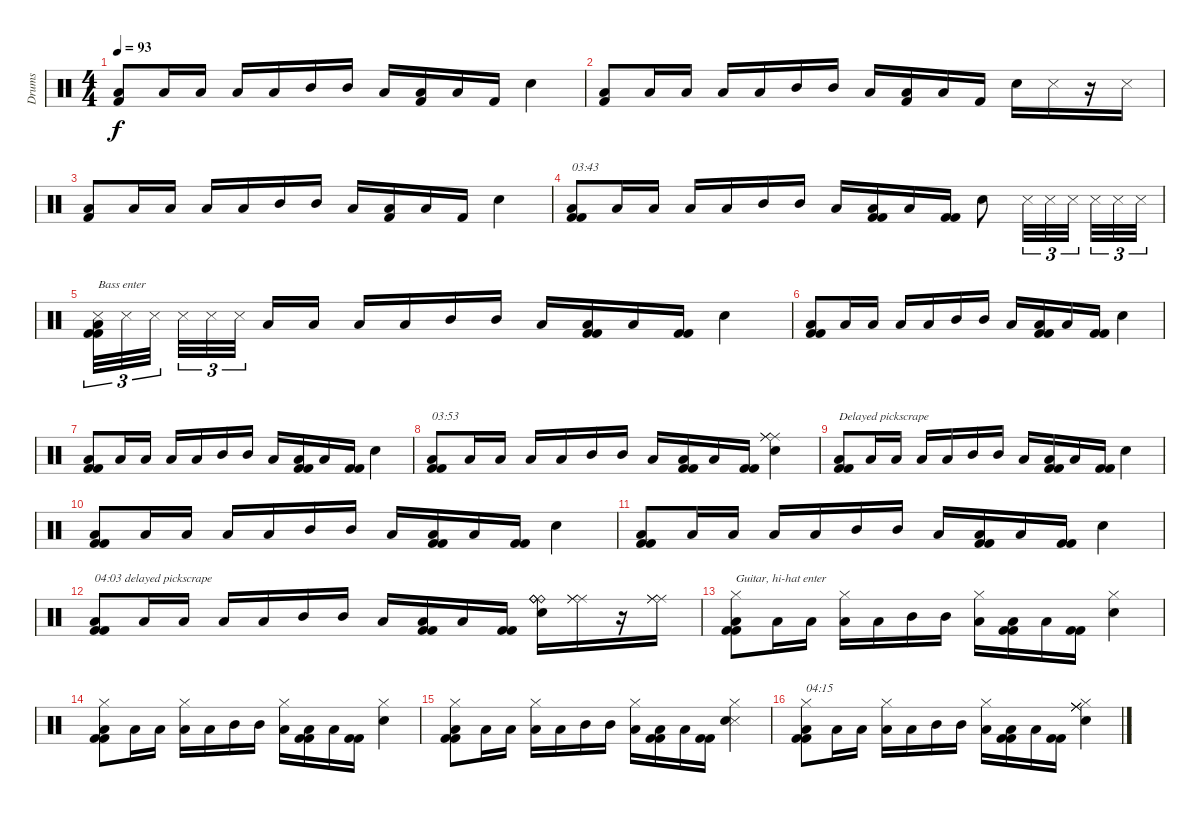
\track ("Drums" "Drums") {instrument percussion}
\staff {score}
\articulation defaults
\ts (4 4)
\tempo 93
\clef neutral
\ks c
("Low Floor Tom (hit)" "Kick (hit) 2").8{dy f} "Low Floor Tom (hit)".16 "Low Tom (hit)".16 "Low Tom (hit)".16 "Low Floor Tom (hit)".16 "Mid Tom (hit)".16 "Mid Tom (hit)".16 "Low Floor Tom (hit)".16 ("Low Tom (hit)" "Kick (hit) 2").16 "Low Floor Tom (hit)".16 "Kick (hit) 2".16 "Snare (hit) 2".4 |
("Low Floor Tom (hit)" "Kick (hit) 2").8 "Low Floor Tom (hit)".16 "Low Tom (hit)".16 "Low Tom (hit)".16 "Low Floor Tom (hit)".16 "Mid Tom (hit)".16 "Mid Tom (hit)".16 "Low Floor Tom (hit)".16 ("Low Tom (hit)" "Kick (hit) 2").16 "Low Floor Tom (hit)".16 "Kick (hit) 2".16 "Snare (hit) 2".16 "Snare (side stick) 3".16 r.16 "Snare (side stick) 3".16 |
("Low Floor Tom (hit)" "Kick (hit) 2").8 "Low Floor Tom (hit)".16 "Low Tom (hit)".16 "Low Tom (hit)".16 "Low Floor Tom (hit)".16 "Mid Tom (hit)".16 "Mid Tom (hit)".16 "Low Floor Tom (hit)".16 ("Low Tom (hit)" "Kick (hit) 2").16 "Low Floor Tom (hit)".16 "Kick (hit) 2".16 "Snare (hit) 2".4 |
("Low Floor Tom (hit)" "Kick (hit) 2" "Kick (hit) 2").8{txt "03:43"} "Low Floor Tom (hit)".16 "Low Tom (hit)".16 "Low Tom (hit)".16 "Low Floor Tom (hit)".16 "Mid Tom (hit)".16 "Mid Tom (hit)".16 "Low Floor Tom (hit)".16 ("Low Tom (hit)" "Kick (hit) 2" "Kick (hit) 2").16 "Low Floor Tom (hit)".16 ("Kick (hit) 2" "Kick (hit) 2").16 "Snare (hit) 2".8 "Snare (side stick) 3".32{tu (3 2)} "Snare (side stick) 3".32{tu (3 2)} "Snare (side stick) 3".32{tu (3 2)} "Snare (side stick) 3".32{tu (3 2)} "Snare (side stick) 3".32{tu (3 2)} "Snare (side stick) 3".32{tu (3 2)} |
("Snare (side stick) 3" "Low Floor Tom (hit)" "Kick (hit) 2" "Kick (hit) 2").32{tu (3 2) txt "Bass enter"} "Snare (side stick) 3".32{tu (3 2)} "Snare (side stick) 3".32{tu (3 2)} "Snare (side stick) 3".32{tu (3 2)} "Snare (side stick) 3".32{tu (3 2)} "Snare (side stick) 3".32{tu (3 2)} "Low Floor Tom (hit)".16 "Low Tom (hit)".16 "Low Tom (hit)".16 "Low Floor Tom (hit)".16 "Mid Tom (hit)".16 "Mid Tom (hit)".16 "Low Floor Tom (hit)".16 ("Low Tom (hit)" "Kick (hit) 2" "Kick (hit) 2").16 "Low Floor Tom (hit)".16 ("Kick (hit) 2" "Kick (hit) 2").16 "Snare (hit) 2".4 |
("Low Floor Tom (hit)" "Kick (hit) 2" "Kick (hit) 2").8 "Low Floor Tom (hit)".16 "Low Tom (hit)".16 "Low Tom (hit)".16 "Low Floor Tom (hit)".16 "Mid Tom (hit)".16 "Mid Tom (hit)".16 "Low Floor Tom (hit)".16 ("Low Tom (hit)" "Kick (hit) 2" "Kick (hit) 2").16 "Low Floor Tom (hit)".16 ("Kick (hit) 2" "Kick (hit) 2").16 "Snare (hit) 2".4 |
("Low Floor Tom (hit)" "Kick (hit) 2" "Kick (hit) 2").8 "Low Floor Tom (hit)".16 "Low Tom (hit)".16 "Low Tom (hit)".16 "Low Floor Tom (hit)".16 "Mid Tom (hit)".16 "Mid Tom (hit)".16 "Low Floor Tom (hit)".16 ("Low Tom (hit)" "Kick (hit) 2" "Kick (hit) 2").16 "Low Floor Tom (hit)".16 ("Kick (hit) 2" "Kick (hit) 2").16 "Snare (hit) 2".4 |
("Low Floor Tom (hit)" "Kick (hit) 2" "Kick (hit) 2").8{txt "03:53"} "Low Floor Tom (hit)".16 "Low Tom (hit)".16 "Low Tom (hit)".16 "Low Floor Tom (hit)".16 "Mid Tom (hit)".16 "Mid Tom (hit)".16 "Low Floor Tom (hit)".16 ("Low Tom (hit)" "Kick (hit) 2" "Kick (hit) 2").16 "Low Floor Tom (hit)".16 ("Kick (hit) 2" "Kick (hit) 2").16 ("Ride (middle)" "Ride (middle)" "Ride (middle)" "Snare (hit) 2").4 |
("Low Floor Tom (hit)" "Kick (hit) 2" "Kick (hit) 2").8{txt "Delayed pickscrape"} "Low Floor Tom (hit)".16 "Low Tom (hit)".16 "Low Tom (hit)".16 "Low Floor Tom (hit)".16 "Mid Tom (hit)".16 "Mid Tom (hit)".16 "Low Floor Tom (hit)".16 ("Low Tom (hit)" "Kick (hit) 2" "Kick (hit) 2").16 "Low Floor Tom (hit)".16 ("Kick (hit) 2" "Kick (hit) 2").16 "Snare (hit) 2".4 |
("Low Floor Tom (hit)" "Kick (hit) 2" "Kick (hit) 2").8 "Low Floor Tom (hit)".16 "Low Tom (hit)".16 "Low Tom (hit)".16 "Low Floor Tom (hit)".16 "Mid Tom (hit)".16 "Mid Tom (hit)".16 "Low Floor Tom (hit)".16 ("Low Tom (hit)" "Kick (hit) 2" "Kick (hit) 2").16 "Low Floor Tom (hit)".16 ("Kick (hit) 2" "Kick (hit) 2").16 "Snare (hit) 2".4 |
("Low Floor Tom (hit)" "Kick (hit) 2" "Kick (hit) 2").8 "Low Floor Tom (hit)".16 "Low Tom (hit)".16 "Low Tom (hit)".16 "Low Floor Tom (hit)".16 "Mid Tom (hit)".16 "Mid Tom (hit)".16 "Low Floor Tom (hit)".16 ("Low Tom (hit)" "Kick (hit) 2" "Kick (hit) 2").16 "Low Floor Tom (hit)".16 ("Kick (hit) 2" "Kick (hit) 2").16 "Snare (hit) 2".4 |
("Low Floor Tom (hit)" "Kick (hit) 2" "Kick (hit) 2").8{txt "04:03 delayed pickscrape"} "Low Floor Tom (hit)".16 "Low Tom (hit)".16 "Low Tom (hit)".16 "Low Floor Tom (hit)".16 "Mid Tom (hit)".16 "Mid Tom (hit)".16 "Low Floor Tom (hit)".16 ("Low Tom (hit)" "Kick (hit) 2" "Kick (hit) 2").16 "Low Floor Tom (hit)".16 ("Kick (hit) 2" "Kick (hit) 2").16 ("Ride (bell)" "Ride (bell)" "Ride (bell)" "Snare (hit) 2").16 ("Ride (middle)" "Ride (middle)" "Ride (middle)").16 r.16 ("Ride (middle)" "Ride (middle)" "Ride (middle)").16 |
("Hi-Hat (closed)" "Low Floor Tom (hit)" "Kick (hit) 2" "Kick (hit) 2").8{txt "Guitar, hi-hat enter"} "Low Floor Tom (hit)".16 "Low Tom (hit)".16 ("Hi-Hat (closed)" "Low Tom (hit)").16 "Low Floor Tom (hit)".16 "Mid Tom (hit)".16 "Mid Tom (hit)".16 ("Hi-Hat (closed)" "Low Floor Tom (hit)").16 ("Low Tom (hit)" "Kick (hit) 2" "Kick (hit) 2").16 "Low Floor Tom (hit)".16 ("Kick (hit) 2" "Kick (hit) 2").16 ("Hi-Hat (closed)" "Snare (hit) 2").4 |
("Hi-Hat (closed)" "Low Floor Tom (hit)" "Kick (hit) 2" "Kick (hit) 2").8 "Low Floor Tom (hit)".16 "Low Tom (hit)".16 ("Hi-Hat (closed)" "Low Tom (hit)").16 "Low Floor Tom (hit)".16 "Mid Tom (hit)".16 "Mid Tom (hit)".16 ("Hi-Hat (closed)" "Low Floor Tom (hit)").16 ("Low Tom (hit)" "Kick (hit) 2" "Kick (hit) 2").16 "Low Floor Tom (hit)".16 ("Kick (hit) 2" "Kick (hit) 2").16 ("Hi-Hat (closed)" "Snare (hit) 2").4 |
("Hi-Hat (closed)" "Low Floor Tom (hit)" "Kick (hit) 2" "Kick (hit) 2").8 "Low Floor Tom (hit)".16 "Low Tom (hit)".16 ("Hi-Hat (closed)" "Low Tom (hit)").16 "Low Floor Tom (hit)".16 "Mid Tom (hit)".16 "Mid Tom (hit)".16 ("Hi-Hat (closed)" "Low Floor Tom (hit)").16 ("Low Tom (hit)" "Kick (hit) 2" "Kick (hit) 2").16 "Low Floor Tom (hit)".16 ("Kick (hit) 2" "Kick (hit) 2").16 ("Hi-Hat (closed)" "Snare (side stick) 3" "Snare (hit) 2").4 |
("Hi-Hat (closed)" "Low Floor Tom (hit)" "Kick (hit) 2" "Kick (hit) 2").8{txt "04:15"} "Low Floor Tom (hit)".16 "Low Tom (hit)".16 ("Hi-Hat (closed)" "Low Tom (hit)").16 "Low Floor Tom (hit)".16 "Mid Tom (hit)".16 "Mid Tom (hit)".16 ("Hi-Hat (closed)" "Low Floor Tom (hit)").16 ("Low Tom (hit)" "Kick (hit) 2" "Kick (hit) 2").16 "Low Floor Tom (hit)".16 ("Kick (hit) 2" "Kick (hit) 2").16 ("Hi-Hat (closed)" "Ride (middle)" "Ride (middle)" "Ride (middle)" "Snare (hit) 2").4
